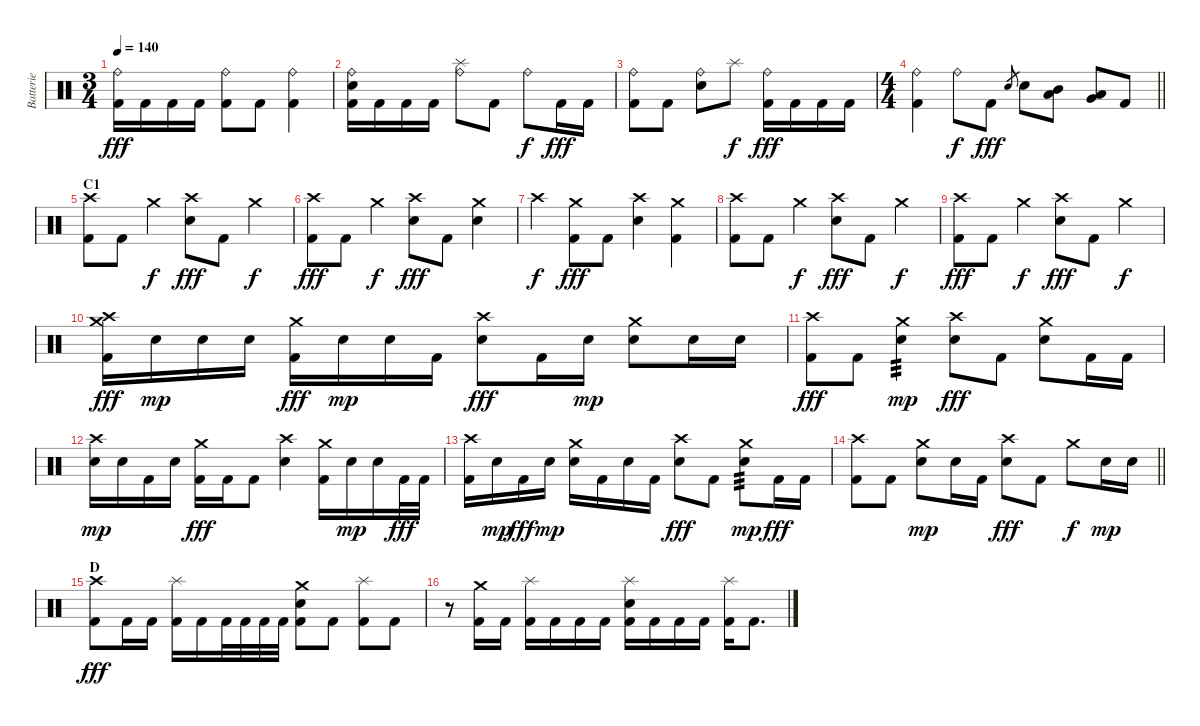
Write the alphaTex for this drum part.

\track ("Batterie" "Batterie") {instrument percussion}
\staff {score}
\articulation defaults
\ts (3 4)
\tempo 140
\clef neutral
\ks c
("Ride (bell)" "Kick (hit) 2").16{dy fff} "Kick (hit) 2".16 "Kick (hit) 2".16 "Kick (hit) 2".16 ("Ride (bell)" "Kick (hit) 2").8 "Kick (hit) 2".8 ("Ride (bell)" "Kick (hit) 2").4 |
("Ride (bell)" "Electric Snare (hit)" "Kick (hit) 2").16 "Kick (hit) 2".16 "Kick (hit) 2".16 "Kick (hit) 2".16 ("Ride (bell)" "Splash (hit)").8 "Kick (hit) 2".8 "Ride (bell)".8{dy f} "Kick (hit) 2".16{dy fff} "Kick (hit) 2".16 |
("Ride (bell)" "Kick (hit) 2").8 "Kick (hit) 2".8 ("Ride (bell)" "Electric Snare (hit)").8 "Splash (hit)".8{dy f} ("Ride (bell)" "Kick (hit) 2").16{dy fff} "Kick (hit) 2".16 "Kick (hit) 2".16 "Kick (hit) 2".16 |
\ts (4 4)
\barLineRight lightlight
("Ride (bell)" "Kick (hit) 2").4 "Ride (bell)".8{dy f} "Kick (hit) 2".8{dy fff} "Electric Snare (hit)".8{gr} "Electric Snare (hit)".8 ("Mid Tom (hit)" "Low Tom (hit)").8 ("Very Low Tom (hit)" "Low Floor Tom (hit)").8 "Kick (hit) 2".8 |
\section ("" "C1")
("Crash high (hit)" "Kick (hit) 2").8 "Kick (hit) 2".8 "Crash medium (hit)".4{dy f} ("Crash high (hit)" "Electric Snare (hit)").8{dy fff} "Kick (hit) 2".8 "Crash medium (hit)".4{dy f} |
("Crash high (hit)" "Kick (hit) 2").8{dy fff} "Kick (hit) 2".8 "Crash medium (hit)".4{dy f} ("Crash high (hit)" "Electric Snare (hit)").8{dy fff} "Kick (hit) 2".8 ("Crash medium (hit)" "Electric Snare (hit)").4 |
"Crash high (hit)".4{dy f} ("Crash medium (hit)" "Kick (hit) 2").8{dy fff} "Kick (hit) 2".8 ("Crash high (hit)" "Electric Snare (hit)").4 ("Crash medium (hit)" "Kick (hit) 2").4 |
("Crash high (hit)" "Kick (hit) 2").8 "Kick (hit) 2".8 "Crash medium (hit)".4{dy f} ("Crash high (hit)" "Electric Snare (hit)").8{dy fff} "Kick (hit) 2".8 "Crash medium (hit)".4{dy f} |
("Crash high (hit)" "Kick (hit) 2").8{dy fff} "Kick (hit) 2".8 "Crash medium (hit)".4{dy f} ("Crash high (hit)" "Electric Snare (hit)").8{dy fff} "Kick (hit) 2".8 "Crash medium (hit)".4{dy f} |
("Crash high (hit)" "Crash medium (hit)" "Kick (hit) 2").16{dy fff} "Electric Snare (hit)".16{dy mp} "Electric Snare (hit)".16 "Electric Snare (hit)".16 ("Crash medium (hit)" "Kick (hit) 2").16{dy fff} "Electric Snare (hit)".16{dy mp} "Electric Snare (hit)".16 "Kick (hit) 2".16 ("Crash high (hit)" "Electric Snare (hit)").8{dy fff} "Kick (hit) 2".16 "Electric Snare (hit)".16{dy mp} ("Crash medium (hit)" "Electric Snare (hit)").8 "Electric Snare (hit)".16 "Electric Snare (hit)".16 |
("Crash high (hit)" "Kick (hit) 2").8{dy fff} "Kick (hit) 2".8 ("Crash medium (hit)" "Electric Snare (hit)").4{tp 3 dy mp} ("Crash high (hit)" "Electric Snare (hit)").8{dy fff} "Kick (hit) 2".8 ("Crash medium (hit)" "Electric Snare (hit)").8 "Kick (hit) 2".16 "Kick (hit) 2".16 |
("Crash high (hit)" "Electric Snare (hit)").16{dy mp} "Electric Snare (hit)".16 "Kick (hit) 2".16 "Electric Snare (hit)".16 ("Crash medium (hit)" "Kick (hit) 2").16{dy fff} "Kick (hit) 2".16 "Kick (hit) 2".8 ("Crash high (hit)" "Electric Snare (hit)").4 ("Crash medium (hit)" "Kick (hit) 2").16 "Electric Snare (hit)".16{dy mp} "Electric Snare (hit)".16 "Kick (hit) 2".32{dy fff} "Kick (hit) 2".32 |
("Crash high (hit)" "Kick (hit) 2").16 "Electric Snare (hit)".16{dy mp} "Kick (hit) 2".16{dy fff} "Electric Snare (hit)".16{dy mp} ("Crash medium (hit)" "Electric Snare (hit)").16 "Kick (hit) 2".16 "Electric Snare (hit)".16 "Kick (hit) 2".16 ("Crash high (hit)" "Electric Snare (hit)").8{dy fff} "Kick (hit) 2".8 ("Crash medium (hit)" "Electric Snare (hit)").8{tp 3 dy mp} "Kick (hit) 2".16{dy fff} "Kick (hit) 2".16 |
\barLineRight lightlight
("Crash high (hit)" "Kick (hit) 2").8 "Kick (hit) 2".8 ("Crash medium (hit)" "Electric Snare (hit)").8{dy mp} "Electric Snare (hit)".16 "Kick (hit) 2".16 ("Crash high (hit)" "Electric Snare (hit)").8{dy fff} "Kick (hit) 2".8 "Crash medium (hit)".8{dy f} "Electric Snare (hit)".16{dy mp} "Electric Snare (hit)".16 |
\section ("" "D")
("Crash high (hit)" "Kick (hit) 2").8{dy fff} "Kick (hit) 2".16 "Kick (hit) 2".16 ("Splash (hit)" "Kick (hit) 2").16 "Kick (hit) 2".16 "Kick (hit) 2".32 "Kick (hit) 2".32 "Kick (hit) 2".32 "Kick (hit) 2".32 ("Crash medium (hit)" "Electric Snare (hit)" "Kick (hit) 2").8 "Kick (hit) 2".8 ("Splash (hit)" "Kick (hit) 2").8 "Kick (hit) 2".8 |
r.8 ("Crash medium (hit)" "Kick (hit) 2").16 "Kick (hit) 2".16 ("Splash (hit)" "Kick (hit) 2").16 "Kick (hit) 2".16 "Kick (hit) 2".16 "Kick (hit) 2".16 ("Splash (hit)" "Electric Snare (hit)" "Kick (hit) 2").16 "Kick (hit) 2".16 "Kick (hit) 2".16 "Kick (hit) 2".16 ("Splash (hit)" "Kick (hit) 2").16 "Kick (hit) 2".8{d}
